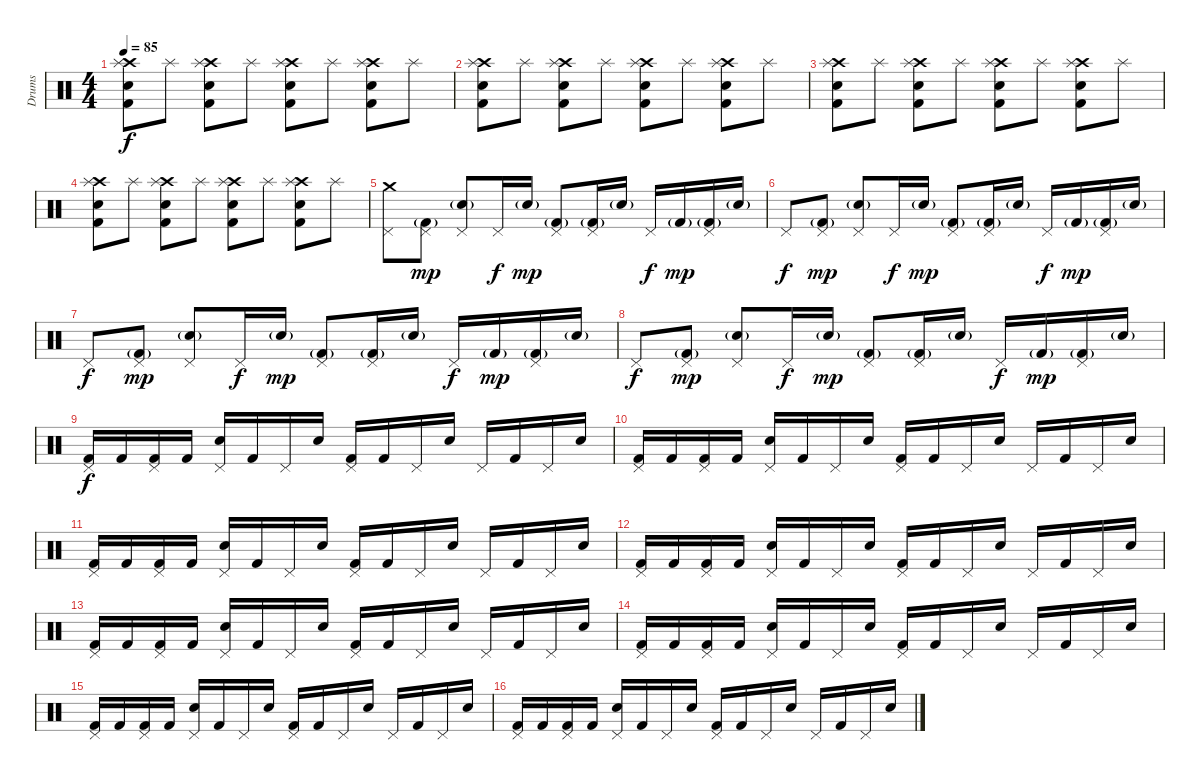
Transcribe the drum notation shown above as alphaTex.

\track ("Drums" "Drums") {instrument percussion}
\staff {score}
\articulation defaults
\ts (4 4)
\tempo 85
\clef neutral
\ks c
("Crash high (hit)" "Splash (hit)" "Snare (hit) 2" "Kick (hit) 2").8{dy f} "Splash (hit)".8 ("Crash high (hit)" "Splash (hit)" "Snare (hit) 2" "Kick (hit) 2").8 "Splash (hit)".8 ("Crash high (hit)" "Splash (hit)" "Snare (hit) 2" "Kick (hit) 2").8 "Splash (hit)".8 ("Crash high (hit)" "Splash (hit)" "Snare (hit) 2" "Kick (hit) 2").8 "Splash (hit)".8 |
("Crash high (hit)" "Splash (hit)" "Snare (hit) 2" "Kick (hit) 2").8 "Splash (hit)".8 ("Crash high (hit)" "Splash (hit)" "Snare (hit) 2" "Kick (hit) 2").8 "Splash (hit)".8 ("Crash high (hit)" "Splash (hit)" "Snare (hit) 2" "Kick (hit) 2").8 "Splash (hit)".8 ("Crash high (hit)" "Splash (hit)" "Snare (hit) 2" "Kick (hit) 2").8 "Splash (hit)".8 |
("Crash high (hit)" "Splash (hit)" "Snare (hit) 2" "Kick (hit) 2").8 "Splash (hit)".8 ("Crash high (hit)" "Splash (hit)" "Snare (hit) 2" "Kick (hit) 2").8 "Splash (hit)".8 ("Crash high (hit)" "Splash (hit)" "Snare (hit) 2" "Kick (hit) 2").8 "Splash (hit)".8 ("Crash high (hit)" "Splash (hit)" "Snare (hit) 2" "Kick (hit) 2").8 "Splash (hit)".8 |
("Crash high (hit)" "Splash (hit)" "Snare (hit) 2" "Kick (hit) 2").8 "Splash (hit)".8 ("Crash high (hit)" "Splash (hit)" "Snare (hit) 2" "Kick (hit) 2").8 "Splash (hit)".8 ("Crash high (hit)" "Splash (hit)" "Snare (hit) 2" "Kick (hit) 2").8 "Splash (hit)".8 ("Crash high (hit)" "Splash (hit)" "Snare (hit) 2" "Kick (hit) 2").8 "Splash (hit)".8 |
("Crash medium (hit)" "Pedal Hi-Hat (hit)").8 ("Pedal Hi-Hat (hit)" "Kick (hit) 2"{g}).8{dy mp} ("Pedal Hi-Hat (hit)" "Snare (hit) 2"{g}).8 "Pedal Hi-Hat (hit)".16{dy f} "Snare (hit) 2"{g}.16{dy mp} ("Pedal Hi-Hat (hit)" "Kick (hit) 2"{g}).8 ("Pedal Hi-Hat (hit)" "Kick (hit) 2"{g}).16 "Snare (hit) 2"{g}.16 "Pedal Hi-Hat (hit)".16{dy f} "Kick (hit) 2"{g}.16{dy mp} ("Pedal Hi-Hat (hit)" "Kick (hit) 2"{g}).16 "Snare (hit) 2"{g}.16 |
"Pedal Hi-Hat (hit)".8{dy f} ("Pedal Hi-Hat (hit)" "Kick (hit) 2"{g}).8{dy mp} ("Pedal Hi-Hat (hit)" "Snare (hit) 2"{g}).8 "Pedal Hi-Hat (hit)".16{dy f} "Snare (hit) 2"{g}.16{dy mp} ("Pedal Hi-Hat (hit)" "Kick (hit) 2"{g}).8 ("Pedal Hi-Hat (hit)" "Kick (hit) 2"{g}).16 "Snare (hit) 2"{g}.16 "Pedal Hi-Hat (hit)".16{dy f} "Kick (hit) 2"{g}.16{dy mp} ("Pedal Hi-Hat (hit)" "Kick (hit) 2"{g}).16 "Snare (hit) 2"{g}.16 |
"Pedal Hi-Hat (hit)".8{dy f} ("Pedal Hi-Hat (hit)" "Kick (hit) 2"{g}).8{dy mp} ("Pedal Hi-Hat (hit)" "Snare (hit) 2"{g}).8 "Pedal Hi-Hat (hit)".16{dy f} "Snare (hit) 2"{g}.16{dy mp} ("Pedal Hi-Hat (hit)" "Kick (hit) 2"{g}).8 ("Pedal Hi-Hat (hit)" "Kick (hit) 2"{g}).16 "Snare (hit) 2"{g}.16 "Pedal Hi-Hat (hit)".16{dy f} "Kick (hit) 2"{g}.16{dy mp} ("Pedal Hi-Hat (hit)" "Kick (hit) 2"{g}).16 "Snare (hit) 2"{g}.16 |
"Pedal Hi-Hat (hit)".8{dy f} ("Pedal Hi-Hat (hit)" "Kick (hit) 2"{g}).8{dy mp} ("Pedal Hi-Hat (hit)" "Snare (hit) 2"{g}).8 "Pedal Hi-Hat (hit)".16{dy f} "Snare (hit) 2"{g}.16{dy mp} ("Pedal Hi-Hat (hit)" "Kick (hit) 2"{g}).8 ("Pedal Hi-Hat (hit)" "Kick (hit) 2"{g}).16 "Snare (hit) 2"{g}.16 "Pedal Hi-Hat (hit)".16{dy f} "Kick (hit) 2"{g}.16{dy mp} ("Pedal Hi-Hat (hit)" "Kick (hit) 2"{g}).16 "Snare (hit) 2"{g}.16 |
("Pedal Hi-Hat (hit)" "Kick (hit) 2").16{dy f} "Kick (hit) 2".16 ("Pedal Hi-Hat (hit)" "Kick (hit) 2").16 "Kick (hit) 2".16 ("Pedal Hi-Hat (hit)" "Snare (hit) 2").16 "Kick (hit) 2".16 "Pedal Hi-Hat (hit)".16 "Snare (hit) 2".16 ("Pedal Hi-Hat (hit)" "Kick (hit) 2").16 "Kick (hit) 2".16 "Pedal Hi-Hat (hit)".16 "Snare (hit) 2".16 "Pedal Hi-Hat (hit)".16 "Kick (hit) 2".16 "Pedal Hi-Hat (hit)".16 "Snare (hit) 2".16 |
("Pedal Hi-Hat (hit)" "Kick (hit) 2").16 "Kick (hit) 2".16 ("Pedal Hi-Hat (hit)" "Kick (hit) 2").16 "Kick (hit) 2".16 ("Pedal Hi-Hat (hit)" "Snare (hit) 2").16 "Kick (hit) 2".16 "Pedal Hi-Hat (hit)".16 "Snare (hit) 2".16 ("Pedal Hi-Hat (hit)" "Kick (hit) 2").16 "Kick (hit) 2".16 "Pedal Hi-Hat (hit)".16 "Snare (hit) 2".16 "Pedal Hi-Hat (hit)".16 "Kick (hit) 2".16 "Pedal Hi-Hat (hit)".16 "Snare (hit) 2".16 |
("Pedal Hi-Hat (hit)" "Kick (hit) 2").16 "Kick (hit) 2".16 ("Pedal Hi-Hat (hit)" "Kick (hit) 2").16 "Kick (hit) 2".16 ("Pedal Hi-Hat (hit)" "Snare (hit) 2").16 "Kick (hit) 2".16 "Pedal Hi-Hat (hit)".16 "Snare (hit) 2".16 ("Pedal Hi-Hat (hit)" "Kick (hit) 2").16 "Kick (hit) 2".16 "Pedal Hi-Hat (hit)".16 "Snare (hit) 2".16 "Pedal Hi-Hat (hit)".16 "Kick (hit) 2".16 "Pedal Hi-Hat (hit)".16 "Snare (hit) 2".16 |
("Pedal Hi-Hat (hit)" "Kick (hit) 2").16 "Kick (hit) 2".16 ("Pedal Hi-Hat (hit)" "Kick (hit) 2").16 "Kick (hit) 2".16 ("Pedal Hi-Hat (hit)" "Snare (hit) 2").16 "Kick (hit) 2".16 "Pedal Hi-Hat (hit)".16 "Snare (hit) 2".16 ("Pedal Hi-Hat (hit)" "Kick (hit) 2").16 "Kick (hit) 2".16 "Pedal Hi-Hat (hit)".16 "Snare (hit) 2".16 "Pedal Hi-Hat (hit)".16 "Kick (hit) 2".16 "Pedal Hi-Hat (hit)".16 "Snare (hit) 2".16 |
("Pedal Hi-Hat (hit)" "Kick (hit) 2").16 "Kick (hit) 2".16 ("Pedal Hi-Hat (hit)" "Kick (hit) 2").16 "Kick (hit) 2".16 ("Pedal Hi-Hat (hit)" "Snare (hit) 2").16 "Kick (hit) 2".16 "Pedal Hi-Hat (hit)".16 "Snare (hit) 2".16 ("Pedal Hi-Hat (hit)" "Kick (hit) 2").16 "Kick (hit) 2".16 "Pedal Hi-Hat (hit)".16 "Snare (hit) 2".16 "Pedal Hi-Hat (hit)".16 "Kick (hit) 2".16 "Pedal Hi-Hat (hit)".16 "Snare (hit) 2".16 |
("Pedal Hi-Hat (hit)" "Kick (hit) 2").16 "Kick (hit) 2".16 ("Pedal Hi-Hat (hit)" "Kick (hit) 2").16 "Kick (hit) 2".16 ("Pedal Hi-Hat (hit)" "Snare (hit) 2").16 "Kick (hit) 2".16 "Pedal Hi-Hat (hit)".16 "Snare (hit) 2".16 ("Pedal Hi-Hat (hit)" "Kick (hit) 2").16 "Kick (hit) 2".16 "Pedal Hi-Hat (hit)".16 "Snare (hit) 2".16 "Pedal Hi-Hat (hit)".16 "Kick (hit) 2".16 "Pedal Hi-Hat (hit)".16 "Snare (hit) 2".16 |
("Pedal Hi-Hat (hit)" "Kick (hit) 2").16 "Kick (hit) 2".16 ("Pedal Hi-Hat (hit)" "Kick (hit) 2").16 "Kick (hit) 2".16 ("Pedal Hi-Hat (hit)" "Snare (hit) 2").16 "Kick (hit) 2".16 "Pedal Hi-Hat (hit)".16 "Snare (hit) 2".16 ("Pedal Hi-Hat (hit)" "Kick (hit) 2").16 "Kick (hit) 2".16 "Pedal Hi-Hat (hit)".16 "Snare (hit) 2".16 "Pedal Hi-Hat (hit)".16 "Kick (hit) 2".16 "Pedal Hi-Hat (hit)".16 "Snare (hit) 2".16 |
("Pedal Hi-Hat (hit)" "Kick (hit) 2").16 "Kick (hit) 2".16 ("Pedal Hi-Hat (hit)" "Kick (hit) 2").16 "Kick (hit) 2".16 ("Pedal Hi-Hat (hit)" "Snare (hit) 2").16 "Kick (hit) 2".16 "Pedal Hi-Hat (hit)".16 "Snare (hit) 2".16 ("Pedal Hi-Hat (hit)" "Kick (hit) 2").16 "Kick (hit) 2".16 "Pedal Hi-Hat (hit)".16 "Snare (hit) 2".16 "Pedal Hi-Hat (hit)".16 "Kick (hit) 2".16 "Pedal Hi-Hat (hit)".16 "Snare (hit) 2".16
